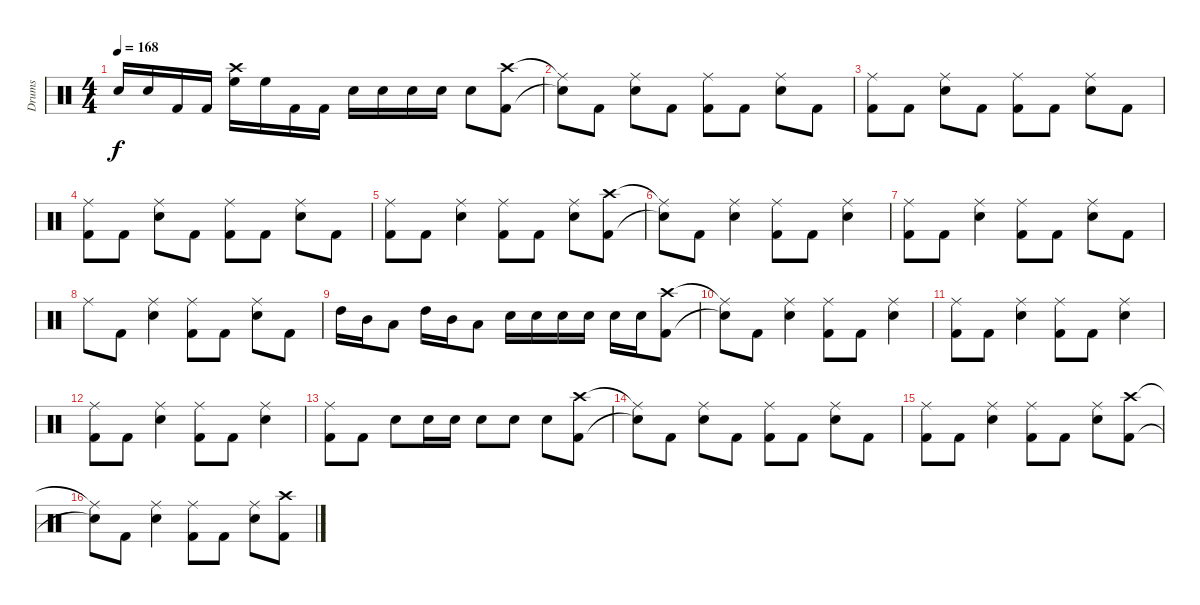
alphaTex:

\track ("Drums" "Drums") {instrument percussion}
\staff {score}
\articulation defaults
\ts (4 4)
\tempo 168
\clef neutral
\ks c "Electric Snare (hit)".16{dy f} "Electric Snare (hit)".16 "Kick (hit) 2".16 "Kick (hit) 2".16
("Crash high (hit)" "High Floor Tom (hit)").16 "High Floor Tom (hit)".16 "Kick (hit) 2".16 "Kick (hit) 2".16 "Electric Snare (hit)".16 "Electric Snare (hit)".16 "Electric Snare (hit)".16 "Electric Snare (hit)".16 "Electric Snare (hit)".8 ("Crash high (hit)" "Kick (hit) 2").8 |
("Ride (middle)"{t} "Snare (hit)"{t}).8 "Kick (hit) 2".8 ("Ride (middle)" "Electric Snare (hit)").8 "Kick (hit) 2".8 ("Ride (middle)" "Kick (hit) 2").8 "Kick (hit) 2".8 ("Ride (middle)" "Electric Snare (hit)").8 "Kick (hit) 2".8 |
("Ride (middle)" "Kick (hit) 2").8 "Kick (hit) 2".8 ("Ride (middle)" "Electric Snare (hit)").8 "Kick (hit) 2".8 ("Ride (middle)" "Kick (hit) 2").8 "Kick (hit) 2".8 ("Ride (middle)" "Electric Snare (hit)").8 "Kick (hit) 2".8 |
("Ride (middle)" "Kick (hit) 2").8 "Kick (hit) 2".8 ("Ride (middle)" "Electric Snare (hit)").8 "Kick (hit) 2".8 ("Ride (middle)" "Kick (hit) 2").8 "Kick (hit) 2".8 ("Ride (middle)" "Electric Snare (hit)").8 "Kick (hit) 2".8 |
("Ride (middle)" "Kick (hit) 2").8 "Kick (hit) 2".8 ("Ride (middle)" "Electric Snare (hit)").4 ("Ride (middle)" "Kick (hit) 2").8 "Kick (hit) 2".8 ("Ride (middle)" "Electric Snare (hit)").8 ("Crash high (hit)" "Kick (hit) 2").8 |
("Ride (middle)"{t} "Snare (hit)"{t}).8 "Kick (hit) 2".8 ("Ride (middle)" "Electric Snare (hit)").4 ("Ride (middle)" "Kick (hit) 2").8 "Kick (hit) 2".8 ("Ride (middle)" "Electric Snare (hit)").4 |
("Ride (middle)" "Kick (hit) 2").8 "Kick (hit) 2".8 ("Ride (middle)" "Electric Snare (hit)").4 ("Ride (middle)" "Kick (hit) 2").8 "Kick (hit) 2".8 ("Ride (middle)" "Electric Snare (hit)").8 "Kick (hit) 2".8 |
"Ride (middle)".8 "Kick (hit) 2".8 ("Ride (middle)" "Electric Snare (hit)").4 ("Ride (middle)" "Kick (hit) 2").8 "Kick (hit) 2".8 ("Ride (middle)" "Electric Snare (hit)").8 "Kick (hit) 2".8 |
"High Tom (hit)".16 "Mid Tom (hit)".16 "Low Tom (hit)".8 "High Tom (hit)".16 "Mid Tom (hit)".16 "Low Tom (hit)".8 "Electric Snare (hit)".16 "Electric Snare (hit)".16 "Electric Snare (hit)".16 "Electric Snare (hit)".16 "Electric Snare (hit)".16 "Electric Snare (hit)".16 ("Crash high (hit)" "Kick (hit) 2").8 |
("Ride (middle)"{t} "Snare (hit)"{t}).8 "Kick (hit) 2".8 ("Ride (middle)" "Electric Snare (hit)").4 ("Ride (middle)" "Kick (hit) 2").8 "Kick (hit) 2".8 ("Ride (middle)" "Electric Snare (hit)").4 |
("Ride (middle)" "Kick (hit) 2").8 "Kick (hit) 2".8 ("Ride (middle)" "Electric Snare (hit)").4 ("Ride (middle)" "Kick (hit) 2").8 "Kick (hit) 2".8 ("Ride (middle)" "Electric Snare (hit)").4 |
("Ride (middle)" "Kick (hit) 2").8 "Kick (hit) 2".8 ("Ride (middle)" "Electric Snare (hit)").4 ("Ride (middle)" "Kick (hit) 2").8 "Kick (hit) 2".8 ("Ride (middle)" "Electric Snare (hit)").4 |
("Ride (middle)" "Kick (hit) 2").8 "Kick (hit) 2".8 "Electric Snare (hit)".8 "Electric Snare (hit)".16 "Electric Snare (hit)".16 "Electric Snare (hit)".8 "Electric Snare (hit)".8 "Electric Snare (hit)".8 ("Crash high (hit)" "Kick (hit) 2").8 |
("Ride (middle)"{t} "Snare (hit)"{t}).8 "Kick (hit) 2".8 ("Ride (middle)" "Electric Snare (hit)").8 "Kick (hit) 2".8 ("Ride (middle)" "Kick (hit) 2").8 "Kick (hit) 2".8 ("Ride (middle)" "Electric Snare (hit)").8 "Kick (hit) 2".8 |
("Ride (middle)" "Kick (hit) 2").8 "Kick (hit) 2".8 ("Ride (middle)" "Electric Snare (hit)").4 ("Ride (middle)" "Kick (hit) 2").8 "Kick (hit) 2".8 ("Ride (middle)" "Electric Snare (hit)").8 ("Crash high (hit)" "Kick (hit) 2").8 |
("Ride (middle)"{t} "Snare (hit)"{t}).8 "Kick (hit) 2".8 ("Ride (middle)" "Electric Snare (hit)").4 ("Ride (middle)" "Kick (hit) 2").8 "Kick (hit) 2".8 ("Ride (middle)" "Electric Snare (hit)").8 ("Crash high (hit)" "Kick (hit) 2").8
